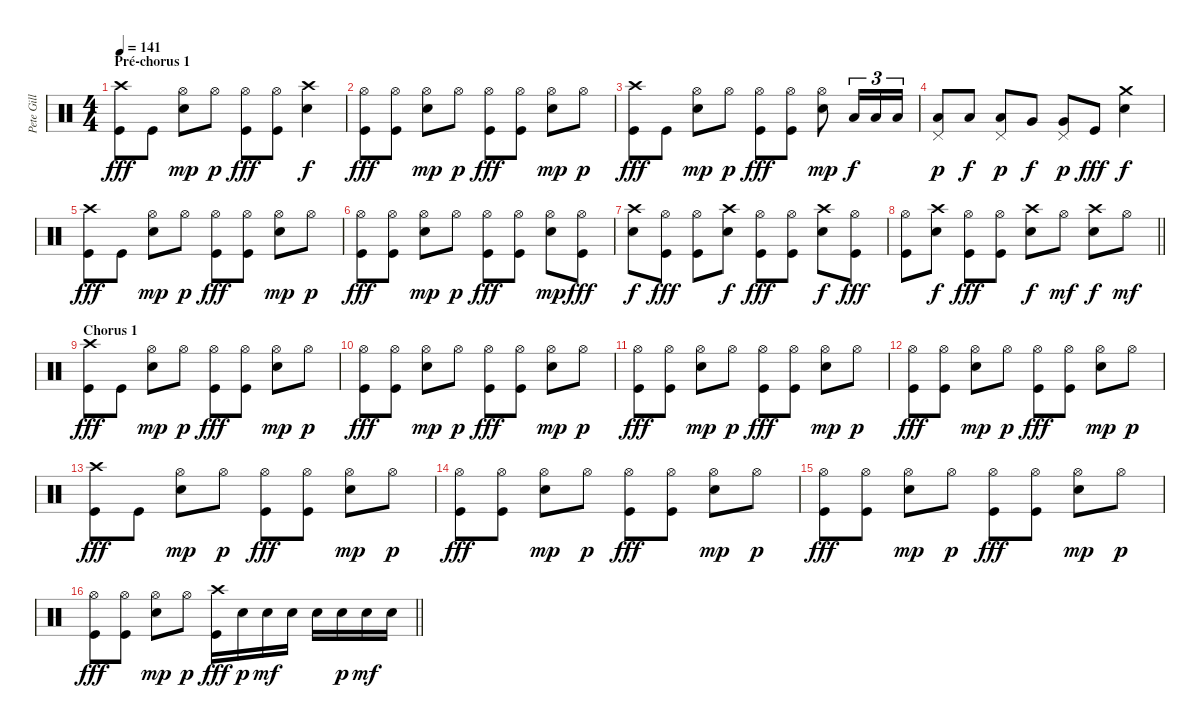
\track ("Pete Gill" "Pete Gill") {instrument percussion}
\staff {score}
\articulation defaults
\ts (4 4)
\section ("" "Pré-chorus 1")
\tempo 141
\clef neutral
\ks c
("Crash high (hit)" "Kick (hit)").8{dy fff} "Kick (hit)".8 ("Hi-Hat (open)" "Electric Snare (hit)").8{dy mp} "Hi-Hat (open)".8{dy p} ("Hi-Hat (open)" "Kick (hit)").8{dy fff} ("Hi-Hat (open)" "Kick (hit)").8 ("Crash high (hit)" "Electric Snare (hit)").4{dy f} |
("Hi-Hat (open)" "Kick (hit)").8{dy fff} ("Hi-Hat (open)" "Kick (hit)").8 ("Hi-Hat (open)" "Electric Snare (hit)").8{dy mp} "Hi-Hat (open)".8{dy p} ("Hi-Hat (open)" "Kick (hit)").8{dy fff} ("Hi-Hat (open)" "Kick (hit)").8 ("Hi-Hat (open)" "Electric Snare (hit)").8{dy mp} "Hi-Hat (open)".8{dy p} |
("Crash high (hit)" "Kick (hit)").8{dy fff} "Kick (hit)".8 ("Hi-Hat (open)" "Electric Snare (hit)").8{dy mp} "Hi-Hat (open)".8{dy p} ("Hi-Hat (open)" "Kick (hit)").8{dy fff} ("Hi-Hat (open)" "Kick (hit)").8 ("Hi-Hat (open)" "Electric Snare (hit)").8{dy mp} "Low Tom (hit)".16{tu (3 2) dy f} "Low Tom (hit)".16{tu (3 2)} "Low Tom (hit)".16{tu (3 2)} |
("Pedal Hi-Hat (hit)" "Low Tom (hit)").8{dy p} "Low Tom (hit)".8{dy f} ("Pedal Hi-Hat (hit)" "Low Tom (hit)").8{dy p} "Very Low Tom (hit)".8{dy f} ("Pedal Hi-Hat (hit)" "Very Low Tom (hit)").8{dy p} "Kick (hit)".8{dy fff} ("Crash medium (hit)" "Electric Snare (hit)").4{dy f} |
("Crash high (hit)" "Kick (hit)").8{dy fff} "Kick (hit)".8 ("Hi-Hat (open)" "Electric Snare (hit)").8{dy mp} "Hi-Hat (open)".8{dy p} ("Hi-Hat (open)" "Kick (hit)").8{dy fff} ("Hi-Hat (open)" "Kick (hit)").8 ("Hi-Hat (open)" "Electric Snare (hit)").8{dy mp} "Hi-Hat (open)".8{dy p} |
("Hi-Hat (open)" "Kick (hit)").8{dy fff} ("Hi-Hat (open)" "Kick (hit)").8 ("Hi-Hat (open)" "Electric Snare (hit)").8{dy mp} "Hi-Hat (open)".8{dy p} ("Hi-Hat (open)" "Kick (hit)").8{dy fff} ("Hi-Hat (open)" "Kick (hit)").8 ("Hi-Hat (open)" "Electric Snare (hit)").8{dy mp} ("Hi-Hat (open)" "Kick (hit)").8{dy fff} |
("Crash high (hit)" "Electric Snare (hit)").8{dy f} ("Hi-Hat (open)" "Kick (hit)").8{dy fff} ("Hi-Hat (open)" "Kick (hit)").8 ("Crash high (hit)" "Electric Snare (hit)").8{dy f} ("Hi-Hat (open)" "Kick (hit)").8{dy fff} ("Hi-Hat (open)" "Kick (hit)").8 ("Crash high (hit)" "Electric Snare (hit)").8{dy f} ("Hi-Hat (open)" "Kick (hit)").8{dy fff} |
\barLineRight lightlight
("Hi-Hat (open)" "Kick (hit)").8 ("Crash high (hit)" "Electric Snare (hit)").8{dy f} ("Hi-Hat (open)" "Kick (hit)").8{dy fff} ("Hi-Hat (open)" "Kick (hit)").8 ("Crash high (hit)" "Electric Snare (hit)").8{dy f} "Hi-Hat (open)".8{dy mf} ("Crash high (hit)" "Electric Snare (hit)").8{dy f} "Hi-Hat (open)".8{dy mf} |
\section ("" "Chorus 1")
("Crash high (hit)" "Kick (hit)").8{dy fff} "Kick (hit)".8 ("Hi-Hat (open)" "Electric Snare (hit)").8{dy mp} "Hi-Hat (open)".8{dy p} ("Hi-Hat (open)" "Kick (hit)").8{dy fff} ("Hi-Hat (open)" "Kick (hit)").8 ("Hi-Hat (open)" "Electric Snare (hit)").8{dy mp} "Hi-Hat (open)".8{dy p} |
("Hi-Hat (open)" "Kick (hit)").8{dy fff} ("Hi-Hat (open)" "Kick (hit)").8 ("Hi-Hat (open)" "Electric Snare (hit)").8{dy mp} "Hi-Hat (open)".8{dy p} ("Hi-Hat (open)" "Kick (hit)").8{dy fff} ("Hi-Hat (open)" "Kick (hit)").8 ("Hi-Hat (open)" "Electric Snare (hit)").8{dy mp} "Hi-Hat (open)".8{dy p} |
("Hi-Hat (open)" "Kick (hit)").8{dy fff} ("Hi-Hat (open)" "Kick (hit)").8 ("Hi-Hat (open)" "Electric Snare (hit)").8{dy mp} "Hi-Hat (open)".8{dy p} ("Hi-Hat (open)" "Kick (hit)").8{dy fff} ("Hi-Hat (open)" "Kick (hit)").8 ("Hi-Hat (open)" "Electric Snare (hit)").8{dy mp} "Hi-Hat (open)".8{dy p} |
("Hi-Hat (open)" "Kick (hit)").8{dy fff} ("Hi-Hat (open)" "Kick (hit)").8 ("Hi-Hat (open)" "Electric Snare (hit)").8{dy mp} "Hi-Hat (open)".8{dy p} ("Hi-Hat (open)" "Kick (hit)").8{dy fff} ("Hi-Hat (open)" "Kick (hit)").8 ("Hi-Hat (open)" "Electric Snare (hit)").8{dy mp} "Hi-Hat (open)".8{dy p} |
("Crash high (hit)" "Kick (hit)").8{dy fff} "Kick (hit)".8 ("Hi-Hat (open)" "Electric Snare (hit)").8{dy mp} "Hi-Hat (open)".8{dy p} ("Hi-Hat (open)" "Kick (hit)").8{dy fff} ("Hi-Hat (open)" "Kick (hit)").8 ("Hi-Hat (open)" "Electric Snare (hit)").8{dy mp} "Hi-Hat (open)".8{dy p} |
("Hi-Hat (open)" "Kick (hit)").8{dy fff} ("Hi-Hat (open)" "Kick (hit)").8 ("Hi-Hat (open)" "Electric Snare (hit)").8{dy mp} "Hi-Hat (open)".8{dy p} ("Hi-Hat (open)" "Kick (hit)").8{dy fff} ("Hi-Hat (open)" "Kick (hit)").8 ("Hi-Hat (open)" "Electric Snare (hit)").8{dy mp} "Hi-Hat (open)".8{dy p} |
("Hi-Hat (open)" "Kick (hit)").8{dy fff} ("Hi-Hat (open)" "Kick (hit)").8 ("Hi-Hat (open)" "Electric Snare (hit)").8{dy mp} "Hi-Hat (open)".8{dy p} ("Hi-Hat (open)" "Kick (hit)").8{dy fff} ("Hi-Hat (open)" "Kick (hit)").8 ("Hi-Hat (open)" "Electric Snare (hit)").8{dy mp} "Hi-Hat (open)".8{dy p} |
\barLineRight lightlight
("Hi-Hat (open)" "Kick (hit)").8{dy fff} ("Hi-Hat (open)" "Kick (hit)").8 ("Hi-Hat (open)" "Electric Snare (hit)").8{dy mp} "Hi-Hat (open)".8{dy p} ("Crash high (hit)" "Kick (hit)").16{dy fff} "Electric Snare (hit)".16{dy p} "Electric Snare (hit)".16{dy mf} "Electric Snare (hit)".16 "Electric Snare (hit)".16 "Electric Snare (hit)".16{dy p} "Electric Snare (hit)".16{dy mf} "Electric Snare (hit)".16
